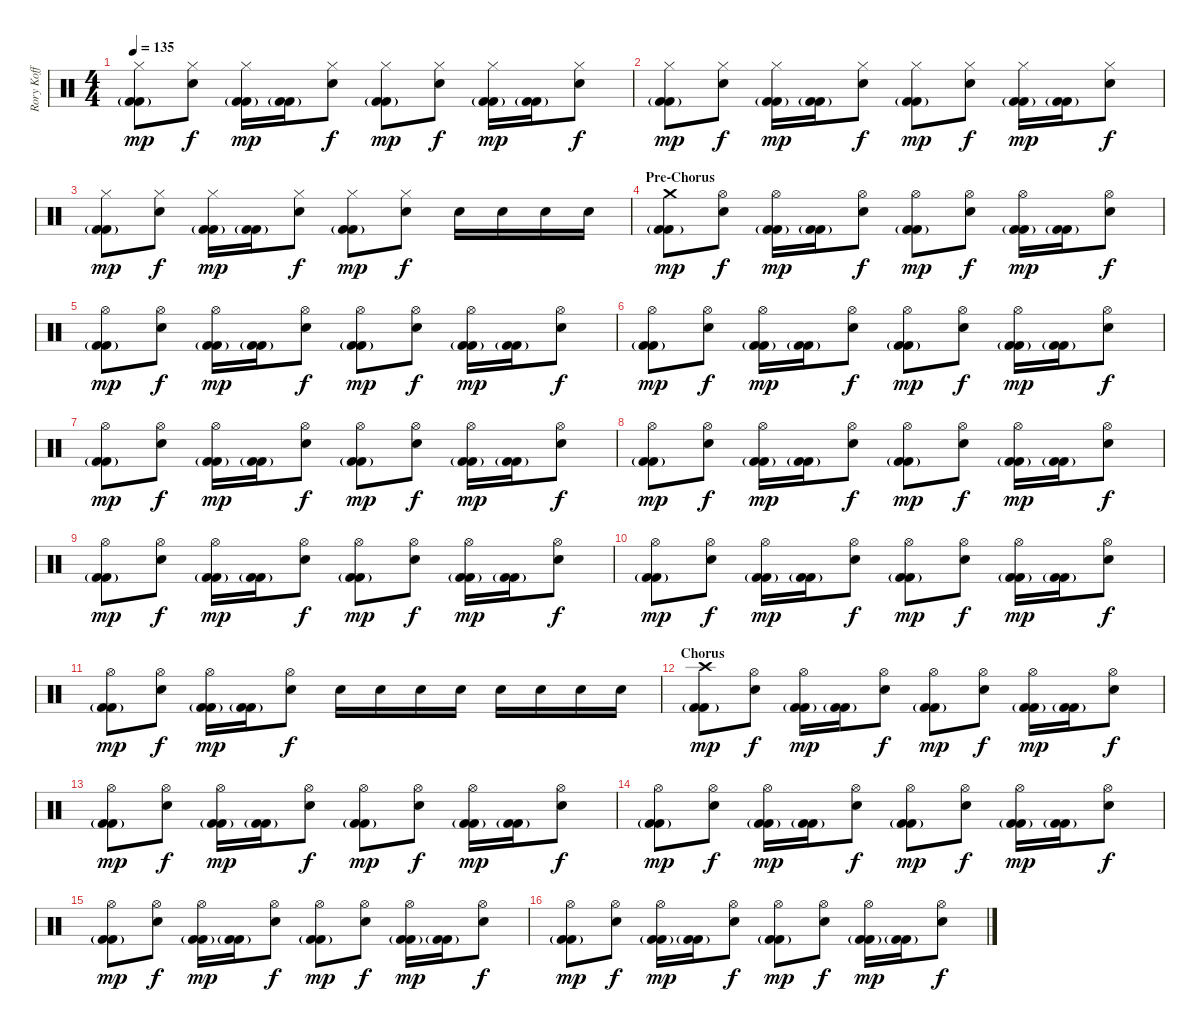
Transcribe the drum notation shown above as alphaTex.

\track ("Rory Koff" "Rory Koff") {instrument percussion}
\staff {score}
\articulation defaults
\ts (4 4)
\tempo 135
\clef neutral
\ks c
("Hi-Hat (closed)" "Kick (hit) 2"{g} "Kick (hit) 2").8{dy mp} ("Hi-Hat (closed)" "Snare (hit) 2").8{dy f} ("Hi-Hat (closed)" "Kick (hit) 2"{g} "Kick (hit) 2").16{dy mp} ("Kick (hit) 2"{g} "Kick (hit) 2").16 ("Hi-Hat (closed)" "Snare (hit) 2").8{dy f} ("Hi-Hat (closed)" "Kick (hit) 2"{g} "Kick (hit) 2").8{dy mp} ("Hi-Hat (closed)" "Snare (hit) 2").8{dy f} ("Hi-Hat (closed)" "Kick (hit) 2"{g} "Kick (hit) 2").16{dy mp} ("Kick (hit) 2"{g} "Kick (hit) 2").16 ("Hi-Hat (closed)" "Snare (hit) 2").8{dy f} |
("Hi-Hat (closed)" "Kick (hit) 2"{g} "Kick (hit) 2").8{dy mp} ("Hi-Hat (closed)" "Snare (hit) 2").8{dy f} ("Hi-Hat (closed)" "Kick (hit) 2"{g} "Kick (hit) 2").16{dy mp} ("Kick (hit) 2"{g} "Kick (hit) 2").16 ("Hi-Hat (closed)" "Snare (hit) 2").8{dy f} ("Hi-Hat (closed)" "Kick (hit) 2"{g} "Kick (hit) 2").8{dy mp} ("Hi-Hat (closed)" "Snare (hit) 2").8{dy f} ("Hi-Hat (closed)" "Kick (hit) 2"{g} "Kick (hit) 2").16{dy mp} ("Kick (hit) 2"{g} "Kick (hit) 2").16 ("Hi-Hat (closed)" "Snare (hit) 2").8{dy f} |
("Hi-Hat (closed)" "Kick (hit) 2"{g} "Kick (hit) 2").8{dy mp} ("Hi-Hat (closed)" "Snare (hit) 2").8{dy f} ("Hi-Hat (closed)" "Kick (hit) 2"{g} "Kick (hit) 2").16{dy mp} ("Kick (hit) 2"{g} "Kick (hit) 2").16 ("Hi-Hat (closed)" "Snare (hit) 2").8{dy f} ("Hi-Hat (closed)" "Kick (hit) 2"{g} "Kick (hit) 2").8{dy mp} ("Hi-Hat (closed)" "Snare (hit) 2").8{dy f} "Snare (hit) 2".16 "Snare (hit) 2".16 "Snare (hit) 2".16 "Snare (hit) 2".16 |
\section ("" "Pre-Chorus")
("Crash medium (hit)" "Kick (hit) 2"{g} "Kick (hit) 2").8{dy mp} ("Hi-Hat (open)" "Snare (hit) 2").8{dy f} ("Hi-Hat (open)" "Kick (hit) 2"{g} "Kick (hit) 2").16{dy mp} ("Kick (hit) 2"{g} "Kick (hit) 2").16 ("Hi-Hat (open)" "Snare (hit) 2").8{dy f} ("Hi-Hat (open)" "Kick (hit) 2"{g} "Kick (hit) 2").8{dy mp} ("Hi-Hat (open)" "Snare (hit) 2").8{dy f} ("Hi-Hat (open)" "Kick (hit) 2"{g} "Kick (hit) 2").16{dy mp} ("Kick (hit) 2"{g} "Kick (hit) 2").16 ("Hi-Hat (open)" "Snare (hit) 2").8{dy f} |
("Hi-Hat (open)" "Kick (hit) 2"{g} "Kick (hit) 2").8{dy mp} ("Hi-Hat (open)" "Snare (hit) 2").8{dy f} ("Hi-Hat (open)" "Kick (hit) 2"{g} "Kick (hit) 2").16{dy mp} ("Kick (hit) 2"{g} "Kick (hit) 2").16 ("Hi-Hat (open)" "Snare (hit) 2").8{dy f} ("Hi-Hat (open)" "Kick (hit) 2"{g} "Kick (hit) 2").8{dy mp} ("Hi-Hat (open)" "Snare (hit) 2").8{dy f} ("Hi-Hat (open)" "Kick (hit) 2"{g} "Kick (hit) 2").16{dy mp} ("Kick (hit) 2"{g} "Kick (hit) 2").16 ("Hi-Hat (open)" "Snare (hit) 2").8{dy f} |
("Hi-Hat (open)" "Kick (hit) 2"{g} "Kick (hit) 2").8{dy mp} ("Hi-Hat (open)" "Snare (hit) 2").8{dy f} ("Hi-Hat (open)" "Kick (hit) 2"{g} "Kick (hit) 2").16{dy mp} ("Kick (hit) 2"{g} "Kick (hit) 2").16 ("Hi-Hat (open)" "Snare (hit) 2").8{dy f} ("Hi-Hat (open)" "Kick (hit) 2"{g} "Kick (hit) 2").8{dy mp} ("Hi-Hat (open)" "Snare (hit) 2").8{dy f} ("Hi-Hat (open)" "Kick (hit) 2"{g} "Kick (hit) 2").16{dy mp} ("Kick (hit) 2"{g} "Kick (hit) 2").16 ("Hi-Hat (open)" "Snare (hit) 2").8{dy f} |
("Hi-Hat (open)" "Kick (hit) 2"{g} "Kick (hit) 2").8{dy mp} ("Hi-Hat (open)" "Snare (hit) 2").8{dy f} ("Hi-Hat (open)" "Kick (hit) 2"{g} "Kick (hit) 2").16{dy mp} ("Kick (hit) 2"{g} "Kick (hit) 2").16 ("Hi-Hat (open)" "Snare (hit) 2").8{dy f} ("Hi-Hat (open)" "Kick (hit) 2"{g} "Kick (hit) 2").8{dy mp} ("Hi-Hat (open)" "Snare (hit) 2").8{dy f} ("Hi-Hat (open)" "Kick (hit) 2"{g} "Kick (hit) 2").16{dy mp} ("Kick (hit) 2"{g} "Kick (hit) 2").16 ("Hi-Hat (open)" "Snare (hit) 2").8{dy f} |
("Hi-Hat (open)" "Kick (hit) 2"{g} "Kick (hit) 2").8{dy mp} ("Hi-Hat (open)" "Snare (hit) 2").8{dy f} ("Hi-Hat (open)" "Kick (hit) 2"{g} "Kick (hit) 2").16{dy mp} ("Kick (hit) 2"{g} "Kick (hit) 2").16 ("Hi-Hat (open)" "Snare (hit) 2").8{dy f} ("Hi-Hat (open)" "Kick (hit) 2"{g} "Kick (hit) 2").8{dy mp} ("Hi-Hat (open)" "Snare (hit) 2").8{dy f} ("Hi-Hat (open)" "Kick (hit) 2"{g} "Kick (hit) 2").16{dy mp} ("Kick (hit) 2"{g} "Kick (hit) 2").16 ("Hi-Hat (open)" "Snare (hit) 2").8{dy f} |
("Hi-Hat (open)" "Kick (hit) 2"{g} "Kick (hit) 2").8{dy mp} ("Hi-Hat (open)" "Snare (hit) 2").8{dy f} ("Hi-Hat (open)" "Kick (hit) 2"{g} "Kick (hit) 2").16{dy mp} ("Kick (hit) 2"{g} "Kick (hit) 2").16 ("Hi-Hat (open)" "Snare (hit) 2").8{dy f} ("Hi-Hat (open)" "Kick (hit) 2"{g} "Kick (hit) 2").8{dy mp} ("Hi-Hat (open)" "Snare (hit) 2").8{dy f} ("Hi-Hat (open)" "Kick (hit) 2"{g} "Kick (hit) 2").16{dy mp} ("Kick (hit) 2"{g} "Kick (hit) 2").16 ("Hi-Hat (open)" "Snare (hit) 2").8{dy f} |
("Hi-Hat (open)" "Kick (hit) 2"{g} "Kick (hit) 2").8{dy mp} ("Hi-Hat (open)" "Snare (hit) 2").8{dy f} ("Hi-Hat (open)" "Kick (hit) 2"{g} "Kick (hit) 2").16{dy mp} ("Kick (hit) 2"{g} "Kick (hit) 2").16 ("Hi-Hat (open)" "Snare (hit) 2").8{dy f} ("Hi-Hat (open)" "Kick (hit) 2"{g} "Kick (hit) 2").8{dy mp} ("Hi-Hat (open)" "Snare (hit) 2").8{dy f} ("Hi-Hat (open)" "Kick (hit) 2"{g} "Kick (hit) 2").16{dy mp} ("Kick (hit) 2"{g} "Kick (hit) 2").16 ("Hi-Hat (open)" "Snare (hit) 2").8{dy f} |
("Hi-Hat (open)" "Kick (hit) 2"{g} "Kick (hit) 2").8{dy mp} ("Hi-Hat (open)" "Snare (hit) 2").8{dy f} ("Hi-Hat (open)" "Kick (hit) 2"{g} "Kick (hit) 2").16{dy mp} ("Kick (hit) 2"{g} "Kick (hit) 2").16 ("Hi-Hat (open)" "Snare (hit) 2").8{dy f} "Snare (hit) 2".16 "Snare (hit) 2".16 "Snare (hit) 2".16 "Snare (hit) 2".16 "Snare (hit) 2".16 "Snare (hit) 2".16 "Snare (hit) 2".16 "Snare (hit) 2".16 |
\section ("" "Chorus")
("Crash high (hit)" "Kick (hit) 2"{g} "Kick (hit) 2").8{dy mp} ("Hi-Hat (open)" "Snare (hit) 2").8{dy f} ("Hi-Hat (open)" "Kick (hit) 2"{g} "Kick (hit) 2").16{dy mp} ("Kick (hit) 2"{g} "Kick (hit) 2").16 ("Hi-Hat (open)" "Snare (hit) 2").8{dy f} ("Hi-Hat (open)" "Kick (hit) 2"{g} "Kick (hit) 2").8{dy mp} ("Hi-Hat (open)" "Snare (hit) 2").8{dy f} ("Hi-Hat (open)" "Kick (hit) 2"{g} "Kick (hit) 2").16{dy mp} ("Kick (hit) 2"{g} "Kick (hit) 2").16 ("Hi-Hat (open)" "Snare (hit) 2").8{dy f} |
("Hi-Hat (open)" "Kick (hit) 2"{g} "Kick (hit) 2").8{dy mp} ("Hi-Hat (open)" "Snare (hit) 2").8{dy f} ("Hi-Hat (open)" "Kick (hit) 2"{g} "Kick (hit) 2").16{dy mp} ("Kick (hit) 2"{g} "Kick (hit) 2").16 ("Hi-Hat (open)" "Snare (hit) 2").8{dy f} ("Hi-Hat (open)" "Kick (hit) 2"{g} "Kick (hit) 2").8{dy mp} ("Hi-Hat (open)" "Snare (hit) 2").8{dy f} ("Hi-Hat (open)" "Kick (hit) 2"{g} "Kick (hit) 2").16{dy mp} ("Kick (hit) 2"{g} "Kick (hit) 2").16 ("Hi-Hat (open)" "Snare (hit) 2").8{dy f} |
("Hi-Hat (open)" "Kick (hit) 2"{g} "Kick (hit) 2").8{dy mp} ("Hi-Hat (open)" "Snare (hit) 2").8{dy f} ("Hi-Hat (open)" "Kick (hit) 2"{g} "Kick (hit) 2").16{dy mp} ("Kick (hit) 2"{g} "Kick (hit) 2").16 ("Hi-Hat (open)" "Snare (hit) 2").8{dy f} ("Hi-Hat (open)" "Kick (hit) 2"{g} "Kick (hit) 2").8{dy mp} ("Hi-Hat (open)" "Snare (hit) 2").8{dy f} ("Hi-Hat (open)" "Kick (hit) 2"{g} "Kick (hit) 2").16{dy mp} ("Kick (hit) 2"{g} "Kick (hit) 2").16 ("Hi-Hat (open)" "Snare (hit) 2").8{dy f} |
("Hi-Hat (open)" "Kick (hit) 2"{g} "Kick (hit) 2").8{dy mp} ("Hi-Hat (open)" "Snare (hit) 2").8{dy f} ("Hi-Hat (open)" "Kick (hit) 2"{g} "Kick (hit) 2").16{dy mp} ("Kick (hit) 2"{g} "Kick (hit) 2").16 ("Hi-Hat (open)" "Snare (hit) 2").8{dy f} ("Hi-Hat (open)" "Kick (hit) 2"{g} "Kick (hit) 2").8{dy mp} ("Hi-Hat (open)" "Snare (hit) 2").8{dy f} ("Hi-Hat (open)" "Kick (hit) 2"{g} "Kick (hit) 2").16{dy mp} ("Kick (hit) 2"{g} "Kick (hit) 2").16 ("Hi-Hat (open)" "Snare (hit) 2").8{dy f} |
("Hi-Hat (open)" "Kick (hit) 2"{g} "Kick (hit) 2").8{dy mp} ("Hi-Hat (open)" "Snare (hit) 2").8{dy f} ("Hi-Hat (open)" "Kick (hit) 2"{g} "Kick (hit) 2").16{dy mp} ("Kick (hit) 2"{g} "Kick (hit) 2").16 ("Hi-Hat (open)" "Snare (hit) 2").8{dy f} ("Hi-Hat (open)" "Kick (hit) 2"{g} "Kick (hit) 2").8{dy mp} ("Hi-Hat (open)" "Snare (hit) 2").8{dy f} ("Hi-Hat (open)" "Kick (hit) 2"{g} "Kick (hit) 2").16{dy mp} ("Kick (hit) 2"{g} "Kick (hit) 2").16 ("Hi-Hat (open)" "Snare (hit) 2").8{dy f}
